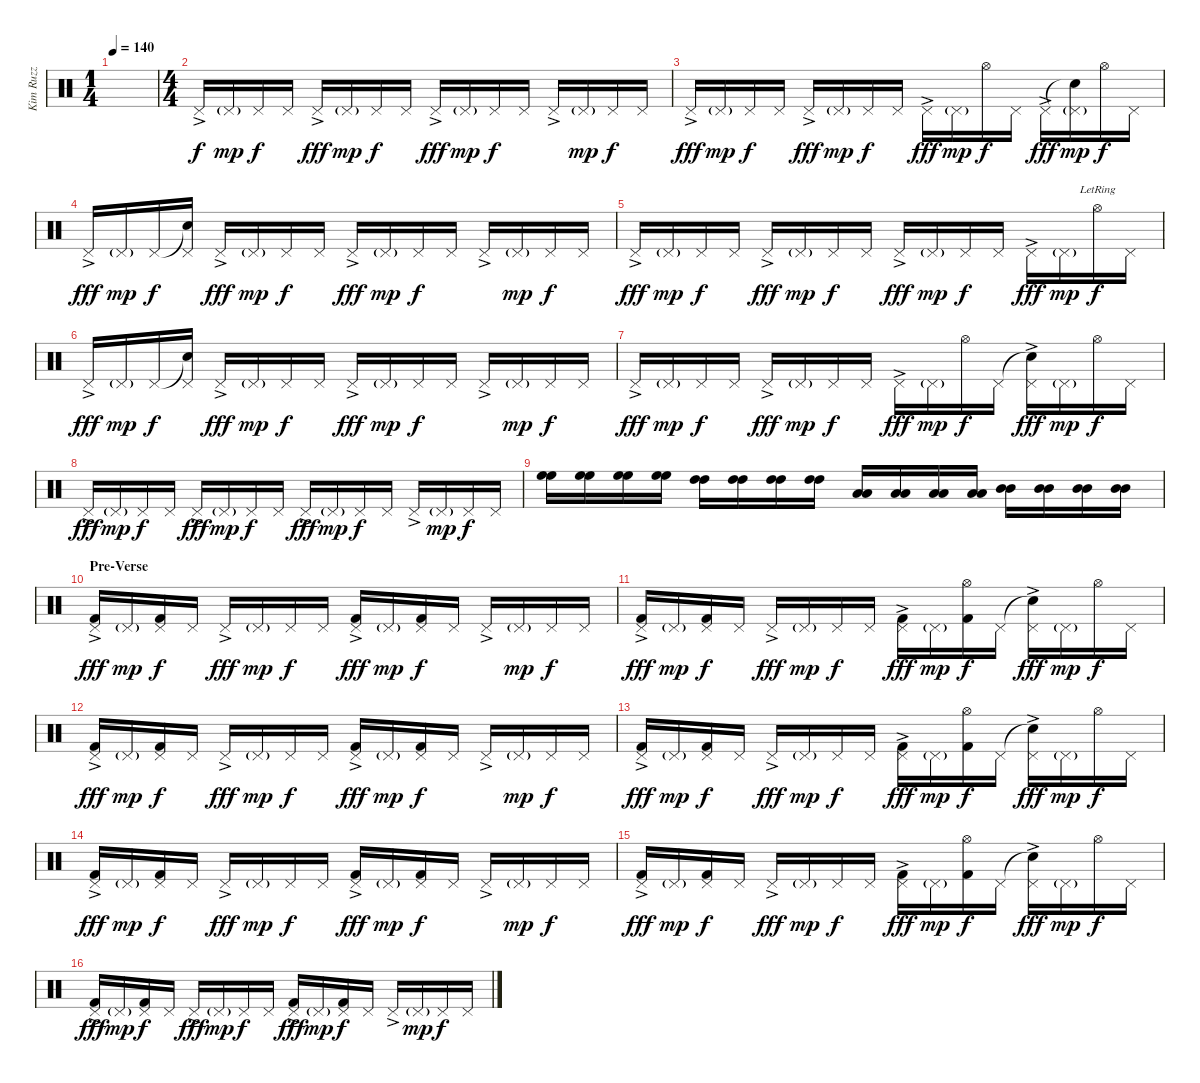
\track ("Kim Ruzz" "Kim Ruzz") {instrument percussion}
\staff {score}
\articulation defaults
\ts (1 4)
\tempo 140
\clef neutral
\ks c
|
\ts (4 4)
"Pedal Hi-Hat (hit)"{ac}.16 "Pedal Hi-Hat (hit)"{g}.16{dy mp} "Pedal Hi-Hat (hit)".16{dy f} "Pedal Hi-Hat (hit)".16 "Pedal Hi-Hat (hit)"{ac}.16{dy fff} "Pedal Hi-Hat (hit)"{g}.16{dy mp} "Pedal Hi-Hat (hit)".16{dy f} "Pedal Hi-Hat (hit)".16 "Pedal Hi-Hat (hit)"{ac}.16{dy fff} "Pedal Hi-Hat (hit)"{g}.16{dy mp} "Pedal Hi-Hat (hit)".16{dy f} "Pedal Hi-Hat (hit)".16 "Pedal Hi-Hat (hit)"{ac}.16 "Pedal Hi-Hat (hit)"{g}.16{dy mp} "Pedal Hi-Hat (hit)".16{dy f} "Pedal Hi-Hat (hit)".16 |
"Pedal Hi-Hat (hit)"{ac}.16{dy fff} "Pedal Hi-Hat (hit)"{g}.16{dy mp} "Pedal Hi-Hat (hit)".16{dy f} "Pedal Hi-Hat (hit)".16 "Pedal Hi-Hat (hit)"{ac}.16{dy fff} "Pedal Hi-Hat (hit)"{g}.16{dy mp} "Pedal Hi-Hat (hit)".16{dy f} "Pedal Hi-Hat (hit)".16 "Pedal Hi-Hat (hit)"{ac}.16{dy fff} "Pedal Hi-Hat (hit)"{g}.16{dy mp} "Hi-Hat (open)".16{dy f} "Pedal Hi-Hat (hit)".16 "Pedal Hi-Hat (hit)"{ac}.16{dy fff} ("Snare (hit)"{t} "Pedal Hi-Hat (hit)"{g}).16{dy mp} "Hi-Hat (open)".16{dy f} "Pedal Hi-Hat (hit)".16 |
"Pedal Hi-Hat (hit)"{ac}.16{dy fff} "Pedal Hi-Hat (hit)"{g}.16{dy mp} "Pedal Hi-Hat (hit)".16{dy f} ("Snare (hit)"{t} "Pedal Hi-Hat (hit)").16 "Pedal Hi-Hat (hit)"{ac}.16{dy fff} "Pedal Hi-Hat (hit)"{g}.16{dy mp} "Pedal Hi-Hat (hit)".16{dy f} "Pedal Hi-Hat (hit)".16 "Pedal Hi-Hat (hit)"{ac}.16{dy fff} "Pedal Hi-Hat (hit)"{g}.16{dy mp} "Pedal Hi-Hat (hit)".16{dy f} "Pedal Hi-Hat (hit)".16 "Pedal Hi-Hat (hit)"{ac}.16 "Pedal Hi-Hat (hit)"{g}.16{dy mp} "Pedal Hi-Hat (hit)".16{dy f} "Pedal Hi-Hat (hit)".16 |
"Pedal Hi-Hat (hit)"{ac}.16{dy fff} "Pedal Hi-Hat (hit)"{g}.16{dy mp} "Pedal Hi-Hat (hit)".16{dy f} "Pedal Hi-Hat (hit)".16 "Pedal Hi-Hat (hit)"{ac}.16{dy fff} "Pedal Hi-Hat (hit)"{g}.16{dy mp} "Pedal Hi-Hat (hit)".16{dy f} "Pedal Hi-Hat (hit)".16 "Pedal Hi-Hat (hit)"{ac}.16{dy fff} "Pedal Hi-Hat (hit)"{g}.16{dy mp} "Pedal Hi-Hat (hit)".16{dy f} "Pedal Hi-Hat (hit)".16 "Pedal Hi-Hat (hit)"{ac}.16{dy fff} "Pedal Hi-Hat (hit)"{g}.16{dy mp} "Hi-Hat (open)"{lr}.16{dy f} "Pedal Hi-Hat (hit)".16 |
"Pedal Hi-Hat (hit)"{ac}.16{dy fff} "Pedal Hi-Hat (hit)"{g}.16{dy mp} "Pedal Hi-Hat (hit)".16{dy f} ("Snare (hit)"{t} "Pedal Hi-Hat (hit)").16 "Pedal Hi-Hat (hit)"{ac}.16{dy fff} "Pedal Hi-Hat (hit)"{g}.16{dy mp} "Pedal Hi-Hat (hit)".16{dy f} "Pedal Hi-Hat (hit)".16 "Pedal Hi-Hat (hit)"{ac}.16{dy fff} "Pedal Hi-Hat (hit)"{g}.16{dy mp} "Pedal Hi-Hat (hit)".16{dy f} "Pedal Hi-Hat (hit)".16 "Pedal Hi-Hat (hit)"{ac}.16 "Pedal Hi-Hat (hit)"{g}.16{dy mp} "Pedal Hi-Hat (hit)".16{dy f} "Pedal Hi-Hat (hit)".16 |
"Pedal Hi-Hat (hit)"{ac}.16{dy fff} "Pedal Hi-Hat (hit)"{g}.16{dy mp} "Pedal Hi-Hat (hit)".16{dy f} "Pedal Hi-Hat (hit)".16 "Pedal Hi-Hat (hit)"{ac}.16{dy fff} "Pedal Hi-Hat (hit)"{g}.16{dy mp} "Pedal Hi-Hat (hit)".16{dy f} "Pedal Hi-Hat (hit)".16 "Pedal Hi-Hat (hit)"{ac}.16{dy fff} "Pedal Hi-Hat (hit)"{g}.16{dy mp} "Hi-Hat (open)".16{dy f} "Pedal Hi-Hat (hit)".16 ("Snare (hit)"{t} "Pedal Hi-Hat (hit)"{ac}).16{dy fff} "Pedal Hi-Hat (hit)"{g}.16{dy mp} "Hi-Hat (open)".16{dy f} "Pedal Hi-Hat (hit)".16 |
"Pedal Hi-Hat (hit)"{ac}.16{dy fff} "Pedal Hi-Hat (hit)"{g}.16{dy mp} "Pedal Hi-Hat (hit)".16{dy f} "Pedal Hi-Hat (hit)".16 "Pedal Hi-Hat (hit)"{ac}.16{dy fff} "Pedal Hi-Hat (hit)"{g}.16{dy mp} "Pedal Hi-Hat (hit)".16{dy f} "Pedal Hi-Hat (hit)".16 "Pedal Hi-Hat (hit)"{ac}.16{dy fff} "Pedal Hi-Hat (hit)"{g}.16{dy mp} "Pedal Hi-Hat (hit)".16{dy f} "Pedal Hi-Hat (hit)".16 "Pedal Hi-Hat (hit)"{ac}.16 "Pedal Hi-Hat (hit)"{g}.16{dy mp} "Pedal Hi-Hat (hit)".16{dy f} "Pedal Hi-Hat (hit)".16 |
("High Floor Tom (hit)" "High Floor Tom (hit)").16 ("High Floor Tom (hit)" "High Floor Tom (hit)").16 ("High Floor Tom (hit)" "High Floor Tom (hit)").16 ("High Floor Tom (hit)" "High Floor Tom (hit)").16 ("High Tom (hit)" "High Tom (hit)").16 ("High Tom (hit)" "High Tom (hit)").16 ("High Tom (hit)" "High Tom (hit)").16 ("High Tom (hit)" "High Tom (hit)").16 ("Low Tom (hit)" "Low Tom (hit)").16 ("Low Tom (hit)" "Low Tom (hit)").16 ("Low Tom (hit)" "Low Tom (hit)").16 ("Low Tom (hit)" "Low Tom (hit)").16 ("Mid Tom (hit)" "Mid Tom (hit)").16 ("Mid Tom (hit)" "Mid Tom (hit)").16 ("Mid Tom (hit)" "Mid Tom (hit)").16 ("Mid Tom (hit)" "Mid Tom (hit)").16 |
\section ("" "Pre-Verse")
("Pedal Hi-Hat (hit)"{ac} "Kick (hit) 2").16{dy fff} "Pedal Hi-Hat (hit)"{g}.16{dy mp} ("Pedal Hi-Hat (hit)" "Kick (hit) 2").16{dy f} "Pedal Hi-Hat (hit)".16 "Pedal Hi-Hat (hit)"{ac}.16{dy fff} "Pedal Hi-Hat (hit)"{g}.16{dy mp} "Pedal Hi-Hat (hit)".16{dy f} "Pedal Hi-Hat (hit)".16 ("Pedal Hi-Hat (hit)"{ac} "Kick (hit) 2").16{dy fff} "Pedal Hi-Hat (hit)"{g}.16{dy mp} ("Pedal Hi-Hat (hit)" "Kick (hit) 2").16{dy f} "Pedal Hi-Hat (hit)".16 "Pedal Hi-Hat (hit)"{ac}.16 "Pedal Hi-Hat (hit)"{g}.16{dy mp} "Pedal Hi-Hat (hit)".16{dy f} "Pedal Hi-Hat (hit)".16 |
("Pedal Hi-Hat (hit)"{ac} "Kick (hit) 2").16{dy fff} "Pedal Hi-Hat (hit)"{g}.16{dy mp} ("Pedal Hi-Hat (hit)" "Kick (hit) 2").16{dy f} "Pedal Hi-Hat (hit)".16 "Pedal Hi-Hat (hit)"{ac}.16{dy fff} "Pedal Hi-Hat (hit)"{g}.16{dy mp} "Pedal Hi-Hat (hit)".16{dy f} "Pedal Hi-Hat (hit)".16 ("Pedal Hi-Hat (hit)"{ac} "Kick (hit) 2").16{dy fff} "Pedal Hi-Hat (hit)"{g}.16{dy mp} ("Hi-Hat (open)" "Kick (hit) 2").16{dy f} "Pedal Hi-Hat (hit)".16 ("Snare (hit)"{t} "Pedal Hi-Hat (hit)"{ac}).16{dy fff} "Pedal Hi-Hat (hit)"{g}.16{dy mp} "Hi-Hat (open)".16{dy f} "Pedal Hi-Hat (hit)".16 |
("Pedal Hi-Hat (hit)"{ac} "Kick (hit) 2").16{dy fff} "Pedal Hi-Hat (hit)"{g}.16{dy mp} ("Pedal Hi-Hat (hit)" "Kick (hit) 2").16{dy f} "Pedal Hi-Hat (hit)".16 "Pedal Hi-Hat (hit)"{ac}.16{dy fff} "Pedal Hi-Hat (hit)"{g}.16{dy mp} "Pedal Hi-Hat (hit)".16{dy f} "Pedal Hi-Hat (hit)".16 ("Pedal Hi-Hat (hit)"{ac} "Kick (hit) 2").16{dy fff} "Pedal Hi-Hat (hit)"{g}.16{dy mp} ("Pedal Hi-Hat (hit)" "Kick (hit) 2").16{dy f} "Pedal Hi-Hat (hit)".16 "Pedal Hi-Hat (hit)"{ac}.16 "Pedal Hi-Hat (hit)"{g}.16{dy mp} "Pedal Hi-Hat (hit)".16{dy f} "Pedal Hi-Hat (hit)".16 |
("Pedal Hi-Hat (hit)"{ac} "Kick (hit) 2").16{dy fff} "Pedal Hi-Hat (hit)"{g}.16{dy mp} ("Pedal Hi-Hat (hit)" "Kick (hit) 2").16{dy f} "Pedal Hi-Hat (hit)".16 "Pedal Hi-Hat (hit)"{ac}.16{dy fff} "Pedal Hi-Hat (hit)"{g}.16{dy mp} "Pedal Hi-Hat (hit)".16{dy f} "Pedal Hi-Hat (hit)".16 ("Pedal Hi-Hat (hit)"{ac} "Kick (hit) 2").16{dy fff} "Pedal Hi-Hat (hit)"{g}.16{dy mp} ("Hi-Hat (open)" "Kick (hit) 2").16{dy f} "Pedal Hi-Hat (hit)".16 ("Snare (hit)"{t} "Pedal Hi-Hat (hit)"{ac}).16{dy fff} "Pedal Hi-Hat (hit)"{g}.16{dy mp} "Hi-Hat (open)".16{dy f} "Pedal Hi-Hat (hit)".16 |
("Pedal Hi-Hat (hit)"{ac} "Kick (hit) 2").16{dy fff} "Pedal Hi-Hat (hit)"{g}.16{dy mp} ("Pedal Hi-Hat (hit)" "Kick (hit) 2").16{dy f} "Pedal Hi-Hat (hit)".16 "Pedal Hi-Hat (hit)"{ac}.16{dy fff} "Pedal Hi-Hat (hit)"{g}.16{dy mp} "Pedal Hi-Hat (hit)".16{dy f} "Pedal Hi-Hat (hit)".16 ("Pedal Hi-Hat (hit)"{ac} "Kick (hit) 2").16{dy fff} "Pedal Hi-Hat (hit)"{g}.16{dy mp} ("Pedal Hi-Hat (hit)" "Kick (hit) 2").16{dy f} "Pedal Hi-Hat (hit)".16 "Pedal Hi-Hat (hit)"{ac}.16 "Pedal Hi-Hat (hit)"{g}.16{dy mp} "Pedal Hi-Hat (hit)".16{dy f} "Pedal Hi-Hat (hit)".16 |
("Pedal Hi-Hat (hit)"{ac} "Kick (hit) 2").16{dy fff} "Pedal Hi-Hat (hit)"{g}.16{dy mp} ("Pedal Hi-Hat (hit)" "Kick (hit) 2").16{dy f} "Pedal Hi-Hat (hit)".16 "Pedal Hi-Hat (hit)"{ac}.16{dy fff} "Pedal Hi-Hat (hit)"{g}.16{dy mp} "Pedal Hi-Hat (hit)".16{dy f} "Pedal Hi-Hat (hit)".16 ("Pedal Hi-Hat (hit)"{ac} "Kick (hit) 2").16{dy fff} "Pedal Hi-Hat (hit)"{g}.16{dy mp} ("Hi-Hat (open)" "Kick (hit) 2").16{dy f} "Pedal Hi-Hat (hit)".16 ("Snare (hit)"{t} "Pedal Hi-Hat (hit)"{ac}).16{dy fff} "Pedal Hi-Hat (hit)"{g}.16{dy mp} "Hi-Hat (open)".16{dy f} "Pedal Hi-Hat (hit)".16 |
("Pedal Hi-Hat (hit)"{ac} "Kick (hit) 2").16{dy fff} "Pedal Hi-Hat (hit)"{g}.16{dy mp} ("Pedal Hi-Hat (hit)" "Kick (hit) 2").16{dy f} "Pedal Hi-Hat (hit)".16 "Pedal Hi-Hat (hit)"{ac}.16{dy fff} "Pedal Hi-Hat (hit)"{g}.16{dy mp} "Pedal Hi-Hat (hit)".16{dy f} "Pedal Hi-Hat (hit)".16 ("Pedal Hi-Hat (hit)"{ac} "Kick (hit) 2").16{dy fff} "Pedal Hi-Hat (hit)"{g}.16{dy mp} ("Pedal Hi-Hat (hit)" "Kick (hit) 2").16{dy f} "Pedal Hi-Hat (hit)".16 "Pedal Hi-Hat (hit)"{ac}.16 "Pedal Hi-Hat (hit)"{g}.16{dy mp} "Pedal Hi-Hat (hit)".16{dy f} "Pedal Hi-Hat (hit)".16
